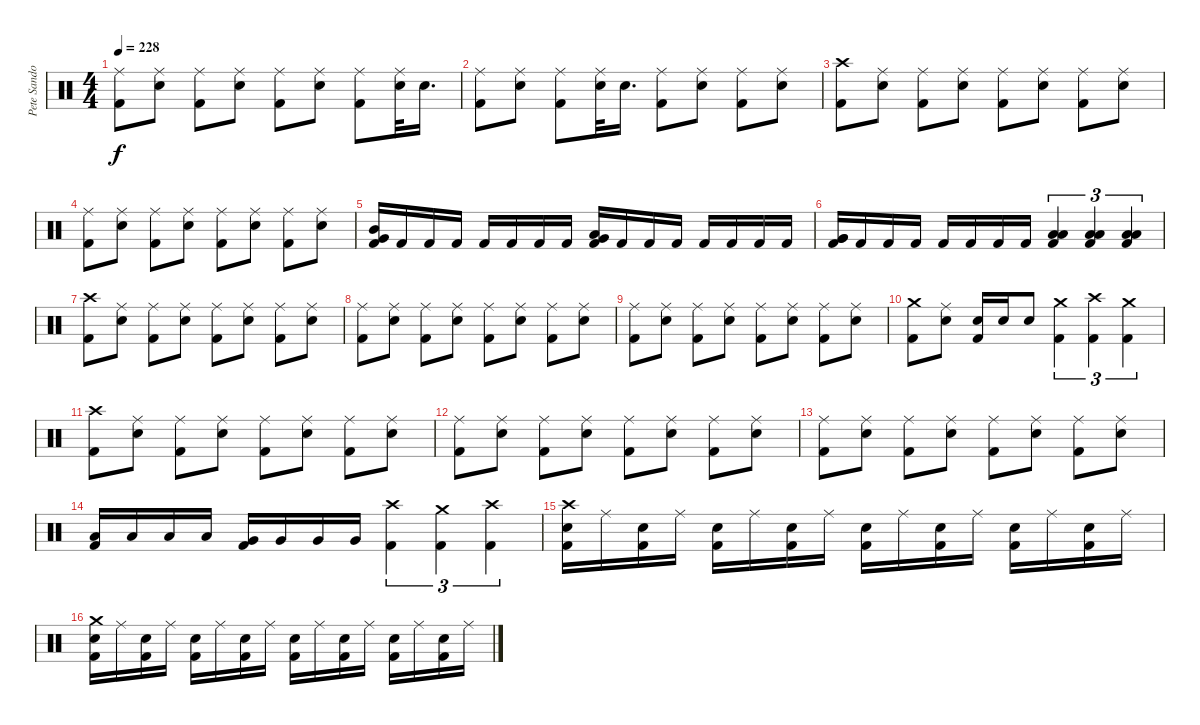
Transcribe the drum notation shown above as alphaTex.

\track ("Pete Sandoval" "Pete Sando") {instrument percussion}
\staff {score}
\articulation defaults
\ts (4 4)
\tempo 228
\clef neutral
\ks c
("Kick (hit) 2" "Ride (middle)").8{dy f} ("Electric Snare (hit)" "Ride (middle)").8 ("Kick (hit) 2" "Ride (middle)").8 ("Electric Snare (hit)" "Ride (middle)").8 ("Kick (hit) 2" "Ride (middle)").8 ("Electric Snare (hit)" "Ride (middle)").8 ("Kick (hit) 2" "Ride (middle)").8 ("Electric Snare (hit)" "Ride (middle)").32 "Electric Snare (hit)".16{d} |
("Kick (hit) 2" "Ride (middle)").8 ("Electric Snare (hit)" "Ride (middle)").8 ("Kick (hit) 2" "Ride (middle)").8 ("Electric Snare (hit)" "Ride (middle)").32 "Electric Snare (hit)".16{d} ("Kick (hit) 2" "Ride (middle)").8 ("Electric Snare (hit)" "Ride (middle)").8 ("Kick (hit) 2" "Ride (middle)").8 ("Electric Snare (hit)" "Ride (middle)").8 |
("Crash high (hit)" "Kick (hit) 2").8 ("Electric Snare (hit)" "Ride (middle)").8 ("Kick (hit) 2" "Ride (middle)").8 ("Electric Snare (hit)" "Ride (middle)").8 ("Kick (hit) 2" "Ride (middle)").8 ("Electric Snare (hit)" "Ride (middle)").8 ("Kick (hit) 2" "Ride (middle)").8 ("Electric Snare (hit)" "Ride (middle)").8 |
("Kick (hit) 2" "Ride (middle)").8 ("Electric Snare (hit)" "Ride (middle)").8 ("Kick (hit) 2" "Ride (middle)").8 ("Electric Snare (hit)" "Ride (middle)").8 ("Kick (hit) 2" "Ride (middle)").8 ("Electric Snare (hit)" "Ride (middle)").8 ("Kick (hit) 2" "Ride (middle)").8 ("Electric Snare (hit)" "Ride (middle)").8 |
("Mid Tom (hit)" "Very Low Tom (hit)" "Kick (hit) 2").16 "Kick (hit) 2".16 "Kick (hit) 2".16 "Kick (hit) 2".16 "Kick (hit) 2".16 "Kick (hit) 2".16 "Kick (hit) 2".16 "Kick (hit) 2".16 ("Low Tom (hit)" "Very Low Tom (hit)" "Kick (hit) 2").16 "Kick (hit) 2".16 "Kick (hit) 2".16 "Kick (hit) 2".16 "Kick (hit) 2".16 "Kick (hit) 2".16 "Kick (hit) 2".16 "Kick (hit) 2".16 |
("Very Low Tom (hit)" "Very Low Tom (hit)" "Kick (hit) 2").16 "Kick (hit) 2".16 "Kick (hit) 2".16 "Kick (hit) 2".16 "Kick (hit) 2".16 "Kick (hit) 2".16 "Kick (hit) 2".16 "Kick (hit) 2".16 ("Low Tom (hit)" "Low Floor Tom (hit)" "Kick (hit) 2").4{tu (3 2)} ("Low Tom (hit)" "Low Floor Tom (hit)" "Kick (hit) 2").4{tu (3 2)} ("Low Tom (hit)" "Low Floor Tom (hit)" "Kick (hit) 2").4{tu (3 2)} |
("Crash high (hit)" "Kick (hit) 2").8 ("Electric Snare (hit)" "Ride (middle)").8 ("Kick (hit) 2" "Ride (middle)").8 ("Electric Snare (hit)" "Ride (middle)").8 ("Kick (hit) 2" "Ride (middle)").8 ("Electric Snare (hit)" "Ride (middle)").8 ("Kick (hit) 2" "Ride (middle)").8 ("Electric Snare (hit)" "Ride (middle)").8 |
("Kick (hit) 2" "Ride (middle)").8 ("Electric Snare (hit)" "Ride (middle)").8 ("Kick (hit) 2" "Ride (middle)").8 ("Electric Snare (hit)" "Ride (middle)").8 ("Kick (hit) 2" "Ride (middle)").8 ("Electric Snare (hit)" "Ride (middle)").8 ("Kick (hit) 2" "Ride (middle)").8 ("Electric Snare (hit)" "Ride (middle)").8 |
("Kick (hit) 2" "Ride (middle)").8 ("Electric Snare (hit)" "Ride (middle)").8 ("Kick (hit) 2" "Ride (middle)").8 ("Electric Snare (hit)" "Ride (middle)").8 ("Kick (hit) 2" "Ride (middle)").8 ("Electric Snare (hit)" "Ride (middle)").8 ("Kick (hit) 2" "Ride (middle)").8 ("Electric Snare (hit)" "Ride (middle)").8 |
("Crash medium (hit)" "Kick (hit) 2").8 ("Electric Snare (hit)" "Ride (middle)").8 ("Kick (hit) 2" "Electric Snare (hit)").16 "Electric Snare (hit)".16 "Electric Snare (hit)".8 ("Crash medium (hit)" "Kick (hit) 2").4{tu (3 2)} ("Crash high (hit)" "Kick (hit) 2").4{tu (3 2)} ("Crash medium (hit)" "Kick (hit) 2").4{tu (3 2)} |
("Crash high (hit)" "Kick (hit) 2").8 ("Electric Snare (hit)" "Ride (middle)").8 ("Kick (hit) 2" "Ride (middle)").8 ("Electric Snare (hit)" "Ride (middle)").8 ("Kick (hit) 2" "Ride (middle)").8 ("Electric Snare (hit)" "Ride (middle)").8 ("Kick (hit) 2" "Ride (middle)").8 ("Electric Snare (hit)" "Ride (middle)").8 |
("Kick (hit) 2" "Ride (middle)").8 ("Electric Snare (hit)" "Ride (middle)").8 ("Kick (hit) 2" "Ride (middle)").8 ("Electric Snare (hit)" "Ride (middle)").8 ("Kick (hit) 2" "Ride (middle)").8 ("Electric Snare (hit)" "Ride (middle)").8 ("Kick (hit) 2" "Ride (middle)").8 ("Electric Snare (hit)" "Ride (middle)").8 |
("Kick (hit) 2" "Ride (middle)").8 ("Electric Snare (hit)" "Ride (middle)").8 ("Kick (hit) 2" "Ride (middle)").8 ("Electric Snare (hit)" "Ride (middle)").8 ("Kick (hit) 2" "Ride (middle)").8 ("Electric Snare (hit)" "Ride (middle)").8 ("Kick (hit) 2" "Ride (middle)").8 ("Electric Snare (hit)" "Ride (middle)").8 |
("Kick (hit) 2" "Low Tom (hit)").16 "Low Tom (hit)".16 "Low Tom (hit)".16 "Low Tom (hit)".16 ("Kick (hit) 2" "Very Low Tom (hit)").16 "Very Low Tom (hit)".16 "Very Low Tom (hit)".16 "Very Low Tom (hit)".16 ("Crash high (hit)" "Kick (hit) 2").4{tu (3 2)} ("Crash medium (hit)" "Kick (hit) 2").4{tu (3 2)} ("Crash high (hit)" "Kick (hit) 2").4{tu (3 2)} |
("Crash high (hit)" "Kick (hit) 2" "Electric Snare (hit)").16 "Ride (middle)".16 ("Kick (hit) 2" "Electric Snare (hit)").16 "Ride (middle)".16 ("Kick (hit) 2" "Electric Snare (hit)").16 "Ride (middle)".16 ("Kick (hit) 2" "Electric Snare (hit)").16 "Ride (middle)".16 ("Kick (hit) 2" "Electric Snare (hit)").16 "Ride (middle)".16 ("Kick (hit) 2" "Electric Snare (hit)").16 "Ride (middle)".16 ("Kick (hit) 2" "Electric Snare (hit)").16 "Ride (middle)".16 ("Kick (hit) 2" "Electric Snare (hit)").16 "Ride (middle)".16 |
("Crash medium (hit)" "Kick (hit) 2" "Electric Snare (hit)").16 "Ride (middle)".16 ("Kick (hit) 2" "Electric Snare (hit)").16 "Ride (middle)".16 ("Kick (hit) 2" "Electric Snare (hit)").16 "Ride (middle)".16 ("Kick (hit) 2" "Electric Snare (hit)").16 "Ride (middle)".16 ("Kick (hit) 2" "Electric Snare (hit)").16 "Ride (middle)".16 ("Kick (hit) 2" "Electric Snare (hit)").16 "Ride (middle)".16 ("Kick (hit) 2" "Electric Snare (hit)").16 "Ride (middle)".16 ("Kick (hit) 2" "Electric Snare (hit)").16 "Ride (middle)".16
